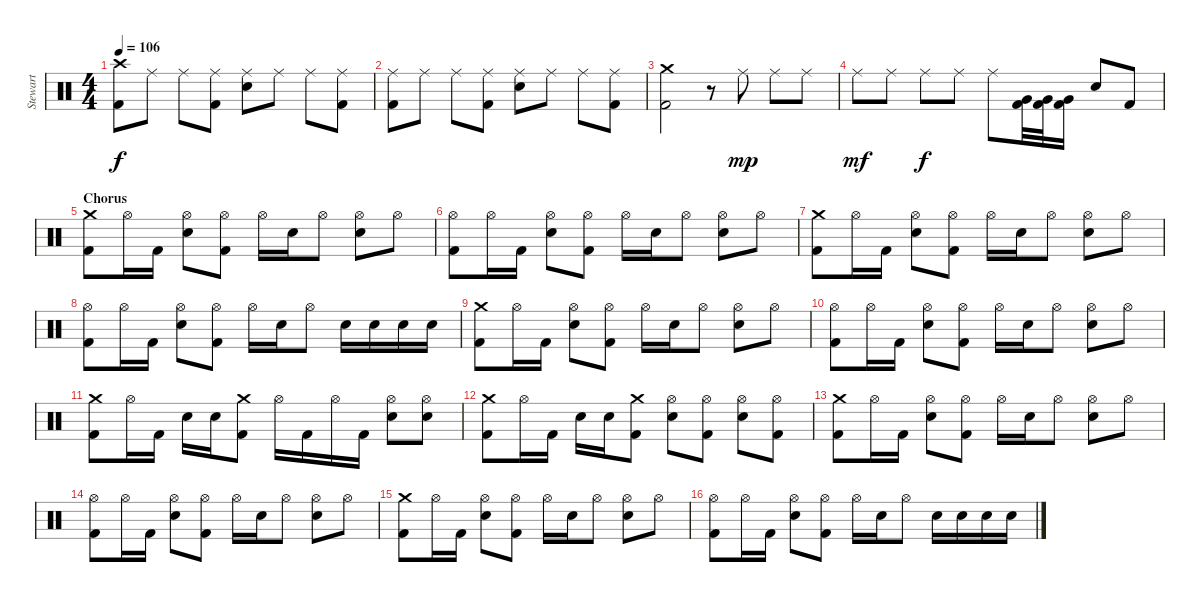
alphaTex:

\track ("Stewart" "Stewart") {instrument percussion}
\staff {score}
\articulation defaults
\ts (4 4)
\tempo 106
\clef neutral
\ks c
("Crash high (hit)" "Kick (hit) 2").8{dy f} "Ride (middle)".8 "Ride (middle)".8 ("Ride (middle)" "Kick (hit) 2").8 ("Ride (middle)" "Electric Snare (hit)").8 "Ride (middle)".8 "Ride (middle)".8 ("Ride (middle)" "Kick (hit) 2").8 |
("Ride (middle)" "Kick (hit) 2").8 "Ride (middle)".8 "Ride (middle)".8 ("Ride (middle)" "Kick (hit) 2").8 ("Ride (middle)" "Electric Snare (hit)").8 "Ride (middle)".8 "Ride (middle)".8 ("Ride (middle)" "Kick (hit) 2").8 |
("Crash medium (hit)" "Kick (hit) 2").2 r.8 "Ride (middle)".8{dy mp} "Ride (middle)".8 "Ride (middle)".8 |
"Ride (middle)".8{dy mf} "Ride (middle)".8 "Ride (middle)".8{dy f} "Ride (middle)".8 "Ride (middle)".8 ("Very Low Tom (hit)" "Kick (hit) 2").32 ("Very Low Tom (hit)" "Kick (hit) 2").32 ("Very Low Tom (hit)" "Kick (hit) 2").16 "Electric Snare (hit)".8 "Kick (hit) 2".8 |
\section ("" "Chorus")
("Crash medium (hit)" "Kick (hit) 2").8 "Hi-Hat (open)".16 "Kick (hit) 2".16 ("Hi-Hat (open)" "Electric Snare (hit)").8 ("Hi-Hat (open)" "Kick (hit) 2").8 "Hi-Hat (open)".16 "Electric Snare (hit)".16 "Hi-Hat (open)".8 ("Hi-Hat (open)" "Electric Snare (hit)").8 "Hi-Hat (open)".8 |
("Hi-Hat (open)" "Kick (hit) 2").8 "Hi-Hat (open)".16 "Kick (hit) 2".16 ("Hi-Hat (open)" "Electric Snare (hit)").8 ("Hi-Hat (open)" "Kick (hit) 2").8 "Hi-Hat (open)".16 "Electric Snare (hit)".16 "Hi-Hat (open)".8 ("Hi-Hat (open)" "Electric Snare (hit)").8 "Hi-Hat (open)".8 |
("Crash medium (hit)" "Kick (hit) 2").8 "Hi-Hat (open)".16 "Kick (hit) 2".16 ("Hi-Hat (open)" "Electric Snare (hit)").8 ("Hi-Hat (open)" "Kick (hit) 2").8 "Hi-Hat (open)".16 "Electric Snare (hit)".16 "Hi-Hat (open)".8 ("Hi-Hat (open)" "Electric Snare (hit)").8 "Hi-Hat (open)".8 |
("Hi-Hat (open)" "Kick (hit) 2").8 "Hi-Hat (open)".16 "Kick (hit) 2".16 ("Hi-Hat (open)" "Electric Snare (hit)").8 ("Hi-Hat (open)" "Kick (hit) 2").8 "Hi-Hat (open)".16 "Electric Snare (hit)".16 "Hi-Hat (open)".8 "Electric Snare (hit)".16 "Electric Snare (hit)".16 "Electric Snare (hit)".16 "Electric Snare (hit)".16 |
("Crash medium (hit)" "Kick (hit) 2").8 "Hi-Hat (open)".16 "Kick (hit) 2".16 ("Hi-Hat (open)" "Electric Snare (hit)").8 ("Hi-Hat (open)" "Kick (hit) 2").8 "Hi-Hat (open)".16 "Electric Snare (hit)".16 "Hi-Hat (open)".8 ("Hi-Hat (open)" "Electric Snare (hit)").8 "Hi-Hat (open)".8 |
("Hi-Hat (open)" "Kick (hit) 2").8 "Hi-Hat (open)".16 "Kick (hit) 2".16 ("Hi-Hat (open)" "Electric Snare (hit)").8 ("Hi-Hat (open)" "Kick (hit) 2").8 "Hi-Hat (open)".16 "Electric Snare (hit)".16 "Hi-Hat (open)".8 ("Hi-Hat (open)" "Electric Snare (hit)").8 "Hi-Hat (open)".8 |
("Crash medium (hit)" "Kick (hit) 2").8 "Hi-Hat (open)".16 "Kick (hit) 2".16 "Electric Snare (hit)".16 "Electric Snare (hit)".16 ("Crash medium (hit)" "Kick (hit) 2").8 "Hi-Hat (open)".16 "Kick (hit) 2".16 "Hi-Hat (open)".16 "Kick (hit) 2".16 ("Hi-Hat (open)" "Electric Snare (hit)").8 ("Hi-Hat (open)" "Electric Snare (hit)").8 |
("Crash medium (hit)" "Kick (hit) 2").8 "Hi-Hat (open)".16 "Kick (hit) 2".16 "Electric Snare (hit)".16 "Electric Snare (hit)".16 ("Crash medium (hit)" "Kick (hit) 2").8 ("Hi-Hat (open)" "Electric Snare (hit)").8 ("Hi-Hat (open)" "Kick (hit) 2").8 ("Hi-Hat (open)" "Electric Snare (hit)").8 ("Hi-Hat (open)" "Kick (hit) 2").8 |
("Crash medium (hit)" "Kick (hit) 2").8 "Hi-Hat (open)".16 "Kick (hit) 2".16 ("Hi-Hat (open)" "Electric Snare (hit)").8 ("Hi-Hat (open)" "Kick (hit) 2").8 "Hi-Hat (open)".16 "Electric Snare (hit)".16 "Hi-Hat (open)".8 ("Hi-Hat (open)" "Electric Snare (hit)").8 "Hi-Hat (open)".8 |
("Hi-Hat (open)" "Kick (hit) 2").8 "Hi-Hat (open)".16 "Kick (hit) 2".16 ("Hi-Hat (open)" "Electric Snare (hit)").8 ("Hi-Hat (open)" "Kick (hit) 2").8 "Hi-Hat (open)".16 "Electric Snare (hit)".16 "Hi-Hat (open)".8 ("Hi-Hat (open)" "Electric Snare (hit)").8 "Hi-Hat (open)".8 |
("Crash medium (hit)" "Kick (hit) 2").8 "Hi-Hat (open)".16 "Kick (hit) 2".16 ("Hi-Hat (open)" "Electric Snare (hit)").8 ("Hi-Hat (open)" "Kick (hit) 2").8 "Hi-Hat (open)".16 "Electric Snare (hit)".16 "Hi-Hat (open)".8 ("Hi-Hat (open)" "Electric Snare (hit)").8 "Hi-Hat (open)".8 |
("Hi-Hat (open)" "Kick (hit) 2").8 "Hi-Hat (open)".16 "Kick (hit) 2".16 ("Hi-Hat (open)" "Electric Snare (hit)").8 ("Hi-Hat (open)" "Kick (hit) 2").8 "Hi-Hat (open)".16 "Electric Snare (hit)".16 "Hi-Hat (open)".8 "Electric Snare (hit)".16 "Electric Snare (hit)".16 "Electric Snare (hit)".16 "Electric Snare (hit)".16
